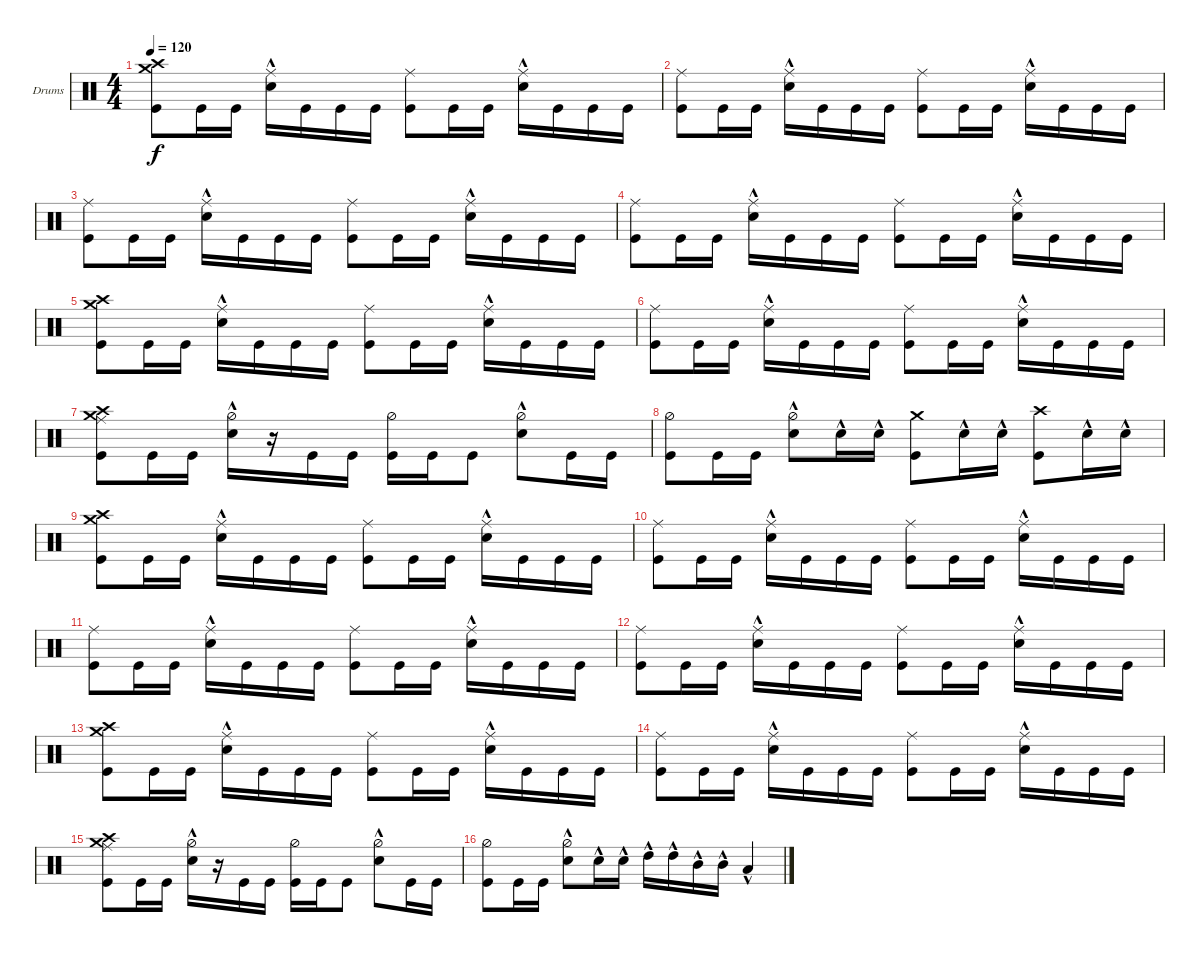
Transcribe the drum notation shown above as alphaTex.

\bracketExtendMode groupsimilarinstruments
\firstSystemTrackNameOrientation horizontal
\otherSystemsTrackNameOrientation horizontal
\track ("Drumkit" "Drums") {instrument percussion}
\staff {score}
\articulation defaults
\ts (4 4)
\tempo 120
\clef neutral
\scale
0.333333
\ks c
("Kick (hit)" "Crash medium (hit)" "Crash high (hit)").8{dy f} "Kick (hit)".16 "Kick (hit)".16 ("Snare (hit) 2"{hac} "Ride (middle)").16 "Kick (hit)".16 "Kick (hit)".16 "Kick (hit)".16 ("Kick (hit)" "Ride (middle)").8 "Kick (hit)".16 "Kick (hit)".16 ("Snare (hit) 2"{hac} "Ride (middle)").16 "Kick (hit)".16 "Kick (hit)".16 "Kick (hit)".16 |
\scale
0.333333 ("Kick (hit)" "Ride (middle)").8 "Kick (hit)".16 "Kick (hit)".16 ("Snare (hit) 2"{hac} "Ride (middle)").16 "Kick (hit)".16 "Kick (hit)".16 "Kick (hit)".16 ("Kick (hit)" "Ride (middle)").8 "Kick (hit)".16 "Kick (hit)".16 ("Snare (hit) 2"{hac} "Ride (middle)").16 "Kick (hit)".16 "Kick (hit)".16 "Kick (hit)".16 |
\scale
0.333333 ("Kick (hit)" "Ride (middle)").8 "Kick (hit)".16 "Kick (hit)".16 ("Snare (hit) 2"{hac} "Ride (middle)").16 "Kick (hit)".16 "Kick (hit)".16 "Kick (hit)".16 ("Kick (hit)" "Ride (middle)").8 "Kick (hit)".16 "Kick (hit)".16 ("Snare (hit) 2"{hac} "Ride (middle)").16 "Kick (hit)".16 "Kick (hit)".16 "Kick (hit)".16 |
\scale
0.333333 ("Kick (hit)" "Ride (middle)").8 "Kick (hit)".16 "Kick (hit)".16 ("Snare (hit) 2"{hac} "Ride (middle)").16 "Kick (hit)".16 "Kick (hit)".16 "Kick (hit)".16 ("Kick (hit)" "Ride (middle)").8 "Kick (hit)".16 "Kick (hit)".16 ("Snare (hit) 2"{hac} "Ride (middle)").16 "Kick (hit)".16 "Kick (hit)".16 "Kick (hit)".16 |
\scale
0.333333 ("Kick (hit)" "Crash medium (hit)" "Crash high (hit)").8 "Kick (hit)".16 "Kick (hit)".16 ("Snare (hit) 2"{hac} "Ride (middle)").16 "Kick (hit)".16 "Kick (hit)".16 "Kick (hit)".16 ("Kick (hit)" "Ride (middle)").8 "Kick (hit)".16 "Kick (hit)".16 ("Snare (hit) 2"{hac} "Ride (middle)").16 "Kick (hit)".16 "Kick (hit)".16 "Kick (hit)".16 |
\scale
0.333333 ("Kick (hit)" "Ride (middle)").8 "Kick (hit)".16 "Kick (hit)".16 ("Snare (hit) 2"{hac} "Ride (middle)").16 "Kick (hit)".16 "Kick (hit)".16 "Kick (hit)".16 ("Kick (hit)" "Ride (middle)").8 "Kick (hit)".16 "Kick (hit)".16 ("Snare (hit) 2"{hac} "Ride (middle)").16 "Kick (hit)".16 "Kick (hit)".16 "Kick (hit)".16 |
\scale
0.333333 ("Kick (hit)" "Ride (middle)" "Crash medium (hit)" "Crash high (hit)").8 "Kick (hit)".16 "Kick (hit)".16 ("Snare (hit) 2"{hac} "Hi-Hat (half)").16 r.16 "Kick (hit)".16 "Kick (hit)".16 ("Kick (hit)" "Hi-Hat (half)").16 "Kick (hit)".16 "Kick (hit)".8 ("Snare (hit) 2"{hac} "Hi-Hat (half)").8 "Kick (hit)".16 "Kick (hit)".16 |
\scale
0.333333 ("Kick (hit)" "Hi-Hat (half)").8 "Kick (hit)".16 "Kick (hit)".16 ("Snare (hit) 2"{hac} "Hi-Hat (half)").8 "Snare (hit) 2"{hac}.16 "Snare (hit) 2"{hac}.16 ("Kick (hit)" "Crash medium (hit)").8 "Snare (hit) 2"{hac}.16 "Snare (hit) 2"{hac}.16 ("Kick (hit)" "Crash high (hit)").8 "Snare (hit) 2"{hac}.16 "Snare (hit) 2"{hac}.16 |
\scale
0.333333 ("Kick (hit)" "Crash medium (hit)" "Crash high (hit)").8 "Kick (hit)".16 "Kick (hit)".16 ("Snare (hit) 2"{hac} "Ride (middle)").16 "Kick (hit)".16 "Kick (hit)".16 "Kick (hit)".16 ("Kick (hit)" "Ride (middle)").8 "Kick (hit)".16 "Kick (hit)".16 ("Snare (hit) 2"{hac} "Ride (middle)").16 "Kick (hit)".16 "Kick (hit)".16 "Kick (hit)".16 |
\scale
0.333333 ("Kick (hit)" "Ride (middle)").8 "Kick (hit)".16 "Kick (hit)".16 ("Snare (hit) 2"{hac} "Ride (middle)").16 "Kick (hit)".16 "Kick (hit)".16 "Kick (hit)".16 ("Kick (hit)" "Ride (middle)").8 "Kick (hit)".16 "Kick (hit)".16 ("Snare (hit) 2"{hac} "Ride (middle)").16 "Kick (hit)".16 "Kick (hit)".16 "Kick (hit)".16 |
\scale
0.333333 ("Kick (hit)" "Ride (middle)").8 "Kick (hit)".16 "Kick (hit)".16 ("Snare (hit) 2"{hac} "Ride (middle)").16 "Kick (hit)".16 "Kick (hit)".16 "Kick (hit)".16 ("Kick (hit)" "Ride (middle)").8 "Kick (hit)".16 "Kick (hit)".16 ("Snare (hit) 2"{hac} "Ride (middle)").16 "Kick (hit)".16 "Kick (hit)".16 "Kick (hit)".16 |
\scale
0.333333 ("Kick (hit)" "Ride (middle)").8 "Kick (hit)".16 "Kick (hit)".16 ("Snare (hit) 2"{hac} "Ride (middle)").16 "Kick (hit)".16 "Kick (hit)".16 "Kick (hit)".16 ("Kick (hit)" "Ride (middle)").8 "Kick (hit)".16 "Kick (hit)".16 ("Snare (hit) 2"{hac} "Ride (middle)").16 "Kick (hit)".16 "Kick (hit)".16 "Kick (hit)".16 |
\scale
0.333333 ("Kick (hit)" "Crash medium (hit)" "Crash high (hit)").8 "Kick (hit)".16 "Kick (hit)".16 ("Snare (hit) 2"{hac} "Ride (middle)").16 "Kick (hit)".16 "Kick (hit)".16 "Kick (hit)".16 ("Kick (hit)" "Ride (middle)").8 "Kick (hit)".16 "Kick (hit)".16 ("Snare (hit) 2"{hac} "Ride (middle)").16 "Kick (hit)".16 "Kick (hit)".16 "Kick (hit)".16 |
\scale
0.333333 ("Kick (hit)" "Ride (middle)").8 "Kick (hit)".16 "Kick (hit)".16 ("Snare (hit) 2"{hac} "Ride (middle)").16 "Kick (hit)".16 "Kick (hit)".16 "Kick (hit)".16 ("Kick (hit)" "Ride (middle)").8 "Kick (hit)".16 "Kick (hit)".16 ("Snare (hit) 2"{hac} "Ride (middle)").16 "Kick (hit)".16 "Kick (hit)".16 "Kick (hit)".16 |
\scale
0.333333 ("Kick (hit)" "Ride (middle)" "Crash medium (hit)" "Crash high (hit)").8 "Kick (hit)".16 "Kick (hit)".16 ("Snare (hit) 2"{hac} "Hi-Hat (half)").16 r.16 "Kick (hit)".16 "Kick (hit)".16 ("Kick (hit)" "Hi-Hat (half)").16 "Kick (hit)".16 "Kick (hit)".8 ("Snare (hit) 2"{hac} "Hi-Hat (half)").8 "Kick (hit)".16 "Kick (hit)".16 |
\scale
0.333333 ("Kick (hit)" "Hi-Hat (half)").8 "Kick (hit)".16 "Kick (hit)".16 ("Snare (hit) 2"{hac} "Hi-Hat (half)").8 "Snare (hit) 2"{hac}.16 "Snare (hit) 2"{hac}.16 "High Tom (hit)"{hac}.16 "High Tom (hit)"{hac}.16 "Mid Tom (hit)"{hac}.16 "Mid Tom (hit)"{hac}.16 "Low Tom (hit)"{hac}.4
